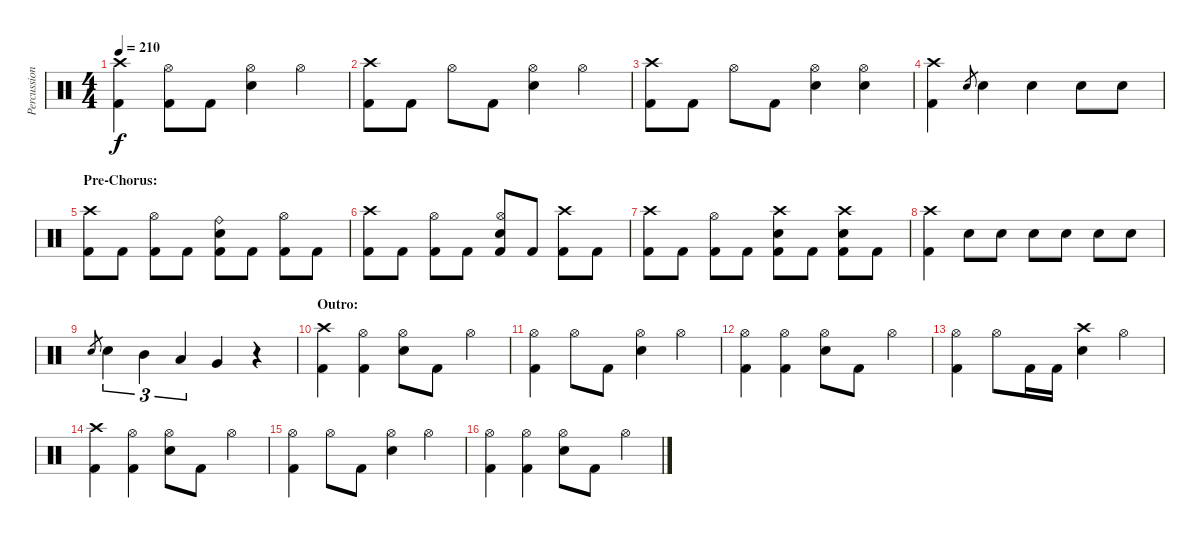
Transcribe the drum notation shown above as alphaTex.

\track ("Percussion" "Percussion") {instrument percussion}
\staff {score}
\articulation defaults
\ts (4 4)
\tempo 210
\clef neutral
\ks c
("Crash high (hit)" "Kick (hit) 2").4{dy f} ("Hi-Hat (open)" "Kick (hit) 2").8 "Kick (hit) 2".8 ("Hi-Hat (open)" "Snare (hit) 2").4 "Hi-Hat (open)".4 |
("Crash high (hit)" "Kick (hit) 2").8 "Kick (hit) 2".8 "Hi-Hat (open)".8 "Kick (hit) 2".8 ("Hi-Hat (open)" "Snare (hit) 2").4 "Hi-Hat (open)".4 |
("Crash high (hit)" "Kick (hit) 2").8 "Kick (hit) 2".8 "Hi-Hat (open)".8 "Kick (hit) 2".8 ("Hi-Hat (open)" "Snare (hit) 2").4 ("Hi-Hat (open)" "Snare (hit) 2").4 |
("Crash high (hit)" "Kick (hit) 2").4 "Snare (hit) 2".8{gr} "Snare (hit) 2".4 "Snare (hit) 2".4 "Snare (hit) 2".8 "Snare (hit) 2".8 |
\section ("" "Pre-Chorus:")
("Crash high (hit)" "Kick (hit) 2").8 "Kick (hit) 2".8 ("Hi-Hat (open)" "Kick (hit) 2").8 "Kick (hit) 2".8 ("Ride (bell)" "Snare (hit) 2" "Kick (hit) 2").8 "Kick (hit) 2".8 ("Hi-Hat (open)" "Kick (hit) 2").8 "Kick (hit) 2".8 |
("Crash high (hit)" "Kick (hit) 2").8 "Kick (hit) 2".8 ("Hi-Hat (open)" "Kick (hit) 2").8 "Kick (hit) 2".8 ("Hi-Hat (open)" "Snare (hit) 2" "Kick (hit) 2").8 "Kick (hit) 2".8 ("Crash high (hit)" "Kick (hit) 2").8 "Kick (hit) 2".8 |
("Crash high (hit)" "Kick (hit) 2").8 "Kick (hit) 2".8 ("Hi-Hat (open)" "Kick (hit) 2").8 "Kick (hit) 2".8 ("Crash high (hit)" "Snare (hit) 2" "Kick (hit) 2").8 "Kick (hit) 2".8 ("Crash high (hit)" "Snare (hit) 2" "Kick (hit) 2").8 "Kick (hit) 2".8 |
("Crash high (hit)" "Kick (hit) 2").4 "Snare (hit) 2".8 "Snare (hit) 2".8 "Snare (hit) 2".8 "Snare (hit) 2".8 "Snare (hit) 2".8 "Snare (hit) 2".8 |
"Snare (hit) 2".8{gr} "Snare (hit) 2".4{tu (3 2)} "Mid Tom (hit)".4{tu (3 2)} "Low Tom (hit)".4{tu (3 2)} "Very Low Tom (hit)".4 r.4 |
\section ("" "Outro:")
("Crash high (hit)" "Kick (hit) 2").4 ("Hi-Hat (open)" "Kick (hit) 2").4 ("Hi-Hat (open)" "Snare (hit) 2").8 "Kick (hit) 2".8 "Hi-Hat (open)".4 |
("Hi-Hat (open)" "Kick (hit) 2").4 "Hi-Hat (open)".8 "Kick (hit) 2".8 ("Hi-Hat (open)" "Snare (hit) 2").4 "Hi-Hat (open)".4 |
("Hi-Hat (open)" "Kick (hit) 2").4 ("Hi-Hat (open)" "Kick (hit) 2").4 ("Hi-Hat (open)" "Snare (hit) 2").8 "Kick (hit) 2".8 "Hi-Hat (open)".4 |
("Hi-Hat (open)" "Kick (hit) 2").4 "Hi-Hat (open)".8 "Kick (hit) 2".16 "Kick (hit) 2".16 ("Crash high (hit)" "Snare (hit) 2").4 "Hi-Hat (open)".4 |
("Crash high (hit)" "Kick (hit) 2").4 ("Hi-Hat (open)" "Kick (hit) 2").4 ("Hi-Hat (open)" "Snare (hit) 2").8 "Kick (hit) 2".8 "Hi-Hat (open)".4 |
("Hi-Hat (open)" "Kick (hit) 2").4 "Hi-Hat (open)".8 "Kick (hit) 2".8 ("Hi-Hat (open)" "Snare (hit) 2").4 "Hi-Hat (open)".4 |
("Hi-Hat (open)" "Kick (hit) 2").4 ("Hi-Hat (open)" "Kick (hit) 2").4 ("Hi-Hat (open)" "Snare (hit) 2").8 "Kick (hit) 2".8 "Hi-Hat (open)".4
